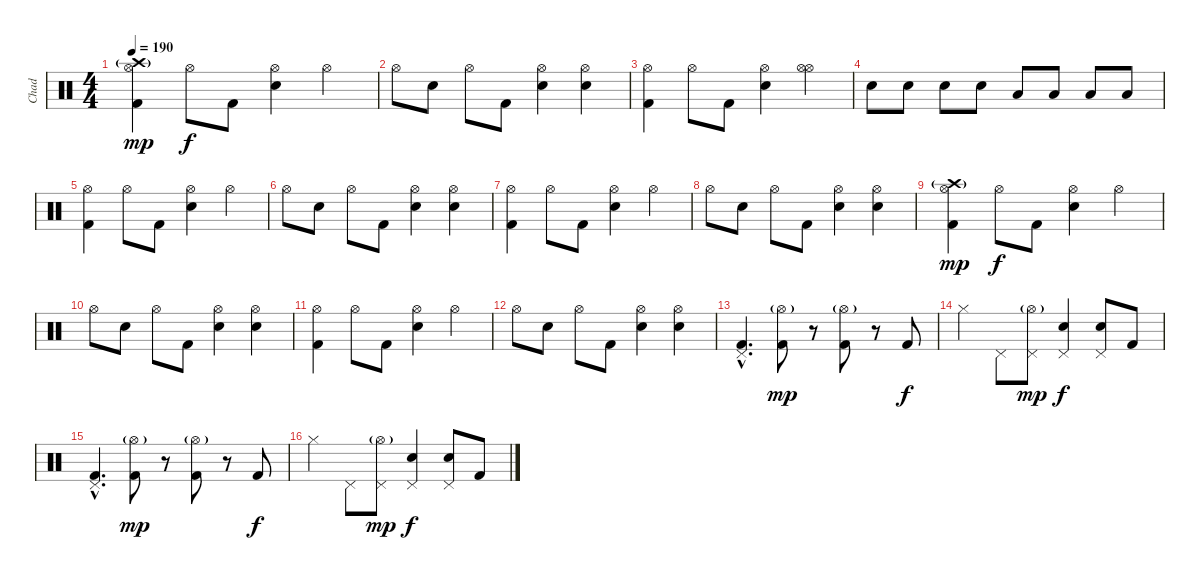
\track ("Chad" "Chad") {instrument percussion}
\staff {score}
\articulation defaults
\ts (4 4)
\tempo 190
\clef neutral
\ks c
("Hi-Hat (open)" "Kick (hit) 2" "Crash high (hit)"{g}).4{dy mp} "Hi-Hat (open)".8{dy f} "Kick (hit) 2".8 ("Hi-Hat (open)" "Electric Snare (hit)").4 "Hi-Hat (open)".4 |
"Hi-Hat (open)".8 "Electric Snare (hit)".8 "Hi-Hat (open)".8 "Kick (hit) 2".8 ("Hi-Hat (open)" "Electric Snare (hit)").4 ("Hi-Hat (open)" "Electric Snare (hit)").4 |
("Hi-Hat (open)" "Kick (hit) 2").4 "Hi-Hat (open)".8 "Kick (hit) 2".8 ("Hi-Hat (open)" "Electric Snare (hit)").4 ("Hi-Hat (open)" "Hi-Hat (open)").4 |
"Electric Snare (hit)".8 "Electric Snare (hit)".8 "Electric Snare (hit)".8 "Electric Snare (hit)".8 "Low Tom (hit)".8 "Low Tom (hit)".8 "Low Tom (hit)".8 "Low Tom (hit)".8 |
\section ("" "")
("Hi-Hat (open)" "Kick (hit) 2").4 "Hi-Hat (open)".8 "Kick (hit) 2".8 ("Hi-Hat (open)" "Electric Snare (hit)").4 "Hi-Hat (open)".4 |
"Hi-Hat (open)".8 "Electric Snare (hit)".8 "Hi-Hat (open)".8 "Kick (hit) 2".8 ("Hi-Hat (open)" "Electric Snare (hit)").4 ("Hi-Hat (open)" "Electric Snare (hit)").4 |
("Hi-Hat (open)" "Kick (hit) 2").4 "Hi-Hat (open)".8 "Kick (hit) 2".8 ("Hi-Hat (open)" "Electric Snare (hit)").4 "Hi-Hat (open)".4 |
"Hi-Hat (open)".8 "Electric Snare (hit)".8 "Hi-Hat (open)".8 "Kick (hit) 2".8 ("Hi-Hat (open)" "Electric Snare (hit)").4 ("Hi-Hat (open)" "Electric Snare (hit)").4 |
("Hi-Hat (open)" "Kick (hit) 2" "Crash high (hit)"{g}).4{dy mp} "Hi-Hat (open)".8{dy f} "Kick (hit) 2".8 ("Hi-Hat (open)" "Electric Snare (hit)").4 "Hi-Hat (open)".4 |
"Hi-Hat (open)".8 "Electric Snare (hit)".8 "Hi-Hat (open)".8 "Kick (hit) 2".8 ("Hi-Hat (open)" "Electric Snare (hit)").4 ("Hi-Hat (open)" "Electric Snare (hit)").4 |
("Hi-Hat (open)" "Kick (hit) 2").4 "Hi-Hat (open)".8 "Kick (hit) 2".8 ("Hi-Hat (open)" "Electric Snare (hit)").4 "Hi-Hat (open)".4 |
"Hi-Hat (open)".8 "Electric Snare (hit)".8 "Hi-Hat (open)".8 "Kick (hit) 2".8 ("Hi-Hat (open)" "Electric Snare (hit)").4 ("Hi-Hat (open)" "Electric Snare (hit)").4 |
("Kick (hit) 2"{hac} "Pedal Hi-Hat (hit)"{hac}).4{d} ("Kick (hit) 2" "Hi-Hat (open)"{g}).8{dy mp} r.8 ("Kick (hit) 2" "Hi-Hat (open)"{g}).8 r.8 "Kick (hit) 2".8{dy f} |
"Hi-Hat (closed)".4 "Pedal Hi-Hat (hit)".8 ("Pedal Hi-Hat (hit)" "Hi-Hat (open)"{g}).8{dy mp} ("Electric Snare (hit)" "Pedal Hi-Hat (hit)").4{dy f} ("Electric Snare (hit)" "Pedal Hi-Hat (hit)").8 "Kick (hit) 2".8 |
("Kick (hit) 2"{hac} "Pedal Hi-Hat (hit)"{hac}).4{d} ("Kick (hit) 2" "Hi-Hat (open)"{g}).8{dy mp} r.8 ("Kick (hit) 2" "Hi-Hat (open)"{g}).8 r.8 "Kick (hit) 2".8{dy f} |
"Hi-Hat (closed)".4 "Pedal Hi-Hat (hit)".8 ("Pedal Hi-Hat (hit)" "Hi-Hat (open)"{g}).8{dy mp} ("Electric Snare (hit)" "Pedal Hi-Hat (hit)").4{dy f} ("Electric Snare (hit)" "Pedal Hi-Hat (hit)").8 "Kick (hit) 2".8
